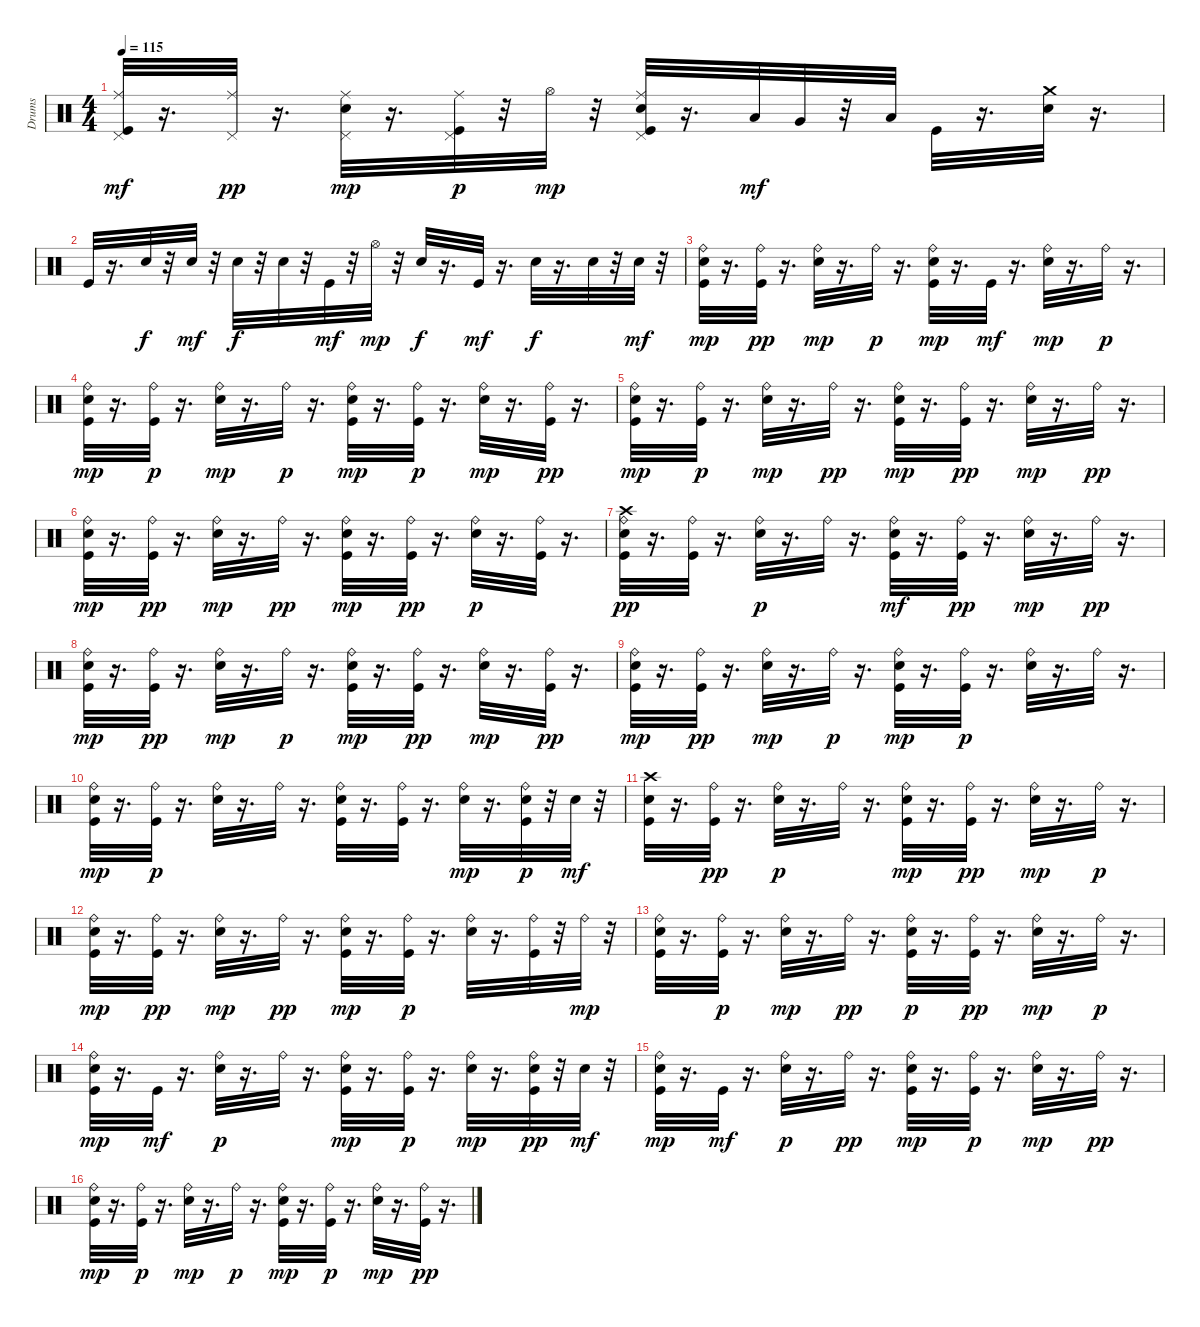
\track ("Drums" "Drums") {instrument percussion}
\staff {score}
\articulation defaults
\ts (4 4)
\tempo 115
\clef neutral
\ks c
("Kick (hit)" "Pedal Hi-Hat (hit)" "Ride (middle)").32{dy mf} r.16{d} ("Pedal Hi-Hat (hit)" "Ride (middle)").32{dy pp} r.16{d} ("Electric Snare (hit)" "Pedal Hi-Hat (hit)" "Ride (middle)").32{dy mp} r.16{d} ("Kick (hit)" "Pedal Hi-Hat (hit)" "Ride (middle)").32{dy p} r.32 "Hi-Hat (open)".32{dy mp} r.32 ("Kick (hit)" "Electric Snare (hit)" "Pedal Hi-Hat (hit)" "Ride (middle)").32 r.16{d} "Low Tom (hit)".32{dy mf} "Very Low Tom (hit)".32 r.32 "Low Floor Tom (hit)".32 "Kick (hit)".32 r.16{d} ("Electric Snare (hit)" "Crash medium (hit)").32 r.16{d} |
"Kick (hit)".32 r.16{d} "Electric Snare (hit)".32{dy f} r.32 "Electric Snare (hit)".32{dy mf} r.32 "Electric Snare (hit)".32{dy f} r.32 "Electric Snare (hit)".32 r.32 "Kick (hit)".32{dy mf} r.32 "Hi-Hat (open)".32{dy mp} r.32 "Electric Snare (hit)".32{dy f} r.16{d} "Kick (hit)".32{dy mf} r.16{d} "Electric Snare (hit)".32{dy f} r.16{d} "Electric Snare (hit)".32 r.32 "Electric Snare (hit)".32{dy mf} r.32 |
("Kick (hit)" "Electric Snare (hit)" "Ride (bell)").32{dy mp} r.16{d} ("Kick (hit)" "Ride (bell)").32{dy pp} r.16{d} ("Electric Snare (hit)" "Ride (bell)").32{dy mp} r.16{d} "Ride (bell)".32{dy p} r.16{d} ("Kick (hit)" "Electric Snare (hit)" "Ride (bell)").32{dy mp} r.16{d} "Kick (hit)".32{dy mf} r.16{d} ("Electric Snare (hit)" "Ride (bell)").32{dy mp} r.16{d} "Ride (bell)".32{dy p} r.16{d} |
("Kick (hit)" "Electric Snare (hit)" "Ride (bell)").32{dy mp} r.16{d} ("Kick (hit)" "Ride (bell)").32{dy p} r.16{d} ("Electric Snare (hit)" "Ride (bell)").32{dy mp} r.16{d} "Ride (bell)".32{dy p} r.16{d} ("Kick (hit)" "Electric Snare (hit)" "Ride (bell)").32{dy mp} r.16{d} ("Kick (hit)" "Ride (bell)").32{dy p} r.16{d} ("Electric Snare (hit)" "Ride (bell)").32{dy mp} r.16{d} ("Kick (hit)" "Ride (bell)").32{dy pp} r.16{d} |
("Kick (hit)" "Electric Snare (hit)" "Ride (bell)").32{dy mp} r.16{d} ("Kick (hit)" "Ride (bell)").32{dy p} r.16{d} ("Electric Snare (hit)" "Ride (bell)").32{dy mp} r.16{d} "Ride (bell)".32{dy pp} r.16{d} ("Kick (hit)" "Electric Snare (hit)" "Ride (bell)").32{dy mp} r.16{d} ("Kick (hit)" "Ride (bell)").32{dy pp} r.16{d} ("Electric Snare (hit)" "Ride (bell)").32{dy mp} r.16{d} "Ride (bell)".32{dy pp} r.16{d} |
("Kick (hit)" "Electric Snare (hit)" "Ride (bell)").32{dy mp} r.16{d} ("Kick (hit)" "Ride (bell)").32{dy pp} r.16{d} ("Electric Snare (hit)" "Ride (bell)").32{dy mp} r.16{d} "Ride (bell)".32{dy pp} r.16{d} ("Kick (hit)" "Electric Snare (hit)" "Ride (bell)").32{dy mp} r.16{d} ("Kick (hit)" "Ride (bell)").32{dy pp} r.16{d} ("Electric Snare (hit)" "Ride (bell)").32{dy p} r.16{d} ("Kick (hit)" "Ride (bell)").32 r.16{d} |
("Kick (hit)" "Electric Snare (hit)" "Crash high (hit)" "Ride (bell)").32{dy pp} r.16{d} ("Kick (hit)" "Ride (bell)").32 r.16{d} ("Electric Snare (hit)" "Ride (bell)").32{dy p} r.16{d} "Ride (bell)".32 r.16{d} ("Kick (hit)" "Electric Snare (hit)" "Ride (bell)").32{dy mf} r.16{d} ("Kick (hit)" "Ride (bell)").32{dy pp} r.16{d} ("Electric Snare (hit)" "Ride (bell)").32{dy mp} r.16{d} "Ride (bell)".32{dy pp} r.16{d} |
("Kick (hit)" "Electric Snare (hit)" "Ride (bell)").32{dy mp} r.16{d} ("Kick (hit)" "Ride (bell)").32{dy pp} r.16{d} ("Electric Snare (hit)" "Ride (bell)").32{dy mp} r.16{d} "Ride (bell)".32{dy p} r.16{d} ("Kick (hit)" "Electric Snare (hit)" "Ride (bell)").32{dy mp} r.16{d} ("Kick (hit)" "Ride (bell)").32{dy pp} r.16{d} ("Electric Snare (hit)" "Ride (bell)").32{dy mp} r.16{d} ("Kick (hit)" "Ride (bell)").32{dy pp} r.16{d} |
("Kick (hit)" "Electric Snare (hit)" "Ride (bell)").32{dy mp} r.16{d} ("Kick (hit)" "Ride (bell)").32{dy pp} r.16{d} ("Electric Snare (hit)" "Ride (bell)").32{dy mp} r.16{d} "Ride (bell)".32{dy p} r.16{d} ("Kick (hit)" "Electric Snare (hit)" "Ride (bell)").32{dy mp} r.16{d} ("Kick (hit)" "Ride (bell)").32{dy p} r.16{d} ("Electric Snare (hit)" "Ride (bell)").32 r.16{d} "Ride (bell)".32 r.16{d} |
("Kick (hit)" "Electric Snare (hit)" "Ride (bell)").32{dy mp} r.16{d} ("Kick (hit)" "Ride (bell)").32{dy p} r.16{d} ("Electric Snare (hit)" "Ride (bell)").32 r.16{d} "Ride (bell)".32 r.16{d} ("Kick (hit)" "Electric Snare (hit)" "Ride (bell)").32 r.16{d} ("Kick (hit)" "Ride (bell)").32 r.16{d} ("Electric Snare (hit)" "Ride (bell)").32{dy mp} r.16{d} ("Kick (hit)" "Electric Snare (hit)" "Ride (bell)").32{dy p} r.32 "Electric Snare (hit)".32{dy mf} r.32 |
("Kick (hit)" "Electric Snare (hit)" "Crash high (hit)").32 r.16{d} ("Kick (hit)" "Ride (bell)").32{dy pp} r.16{d} ("Electric Snare (hit)" "Ride (bell)").32{dy p} r.16{d} "Ride (bell)".32 r.16{d} ("Kick (hit)" "Electric Snare (hit)" "Ride (bell)").32{dy mp} r.16{d} ("Kick (hit)" "Ride (bell)").32{dy pp} r.16{d} ("Electric Snare (hit)" "Ride (bell)").32{dy mp} r.16{d} "Ride (bell)".32{dy p} r.16{d} |
("Kick (hit)" "Electric Snare (hit)" "Ride (bell)").32{dy mp} r.16{d} ("Kick (hit)" "Ride (bell)").32{dy pp} r.16{d} ("Electric Snare (hit)" "Ride (bell)").32{dy mp} r.16{d} "Ride (bell)".32{dy pp} r.16{d} ("Kick (hit)" "Electric Snare (hit)" "Ride (bell)").32{dy mp} r.16{d} ("Kick (hit)" "Ride (bell)").32{dy p} r.16{d} ("Electric Snare (hit)" "Ride (bell)").32 r.16{d} ("Kick (hit)" "Ride (bell)").32 r.32 "Ride (bell)".32{dy mp} r.32 |
("Kick (hit)" "Electric Snare (hit)" "Ride (bell)").32 r.16{d} ("Kick (hit)" "Ride (bell)").32{dy p} r.16{d} ("Electric Snare (hit)" "Ride (bell)").32{dy mp} r.16{d} "Ride (bell)".32{dy pp} r.16{d} ("Kick (hit)" "Electric Snare (hit)" "Ride (bell)").32{dy p} r.16{d} ("Kick (hit)" "Ride (bell)").32{dy pp} r.16{d} ("Electric Snare (hit)" "Ride (bell)").32{dy mp} r.16{d} "Ride (bell)".32{dy p} r.16{d} |
("Kick (hit)" "Electric Snare (hit)" "Ride (bell)").32{dy mp} r.16{d} "Kick (hit)".32{dy mf} r.16{d} ("Electric Snare (hit)" "Ride (bell)").32{dy p} r.16{d} "Ride (bell)".32 r.16{d} ("Kick (hit)" "Electric Snare (hit)" "Ride (bell)").32{dy mp} r.16{d} ("Kick (hit)" "Ride (bell)").32{dy p} r.16{d} ("Electric Snare (hit)" "Ride (bell)").32{dy mp} r.16{d} ("Kick (hit)" "Electric Snare (hit)" "Ride (bell)").32{dy pp} r.32 "Electric Snare (hit)".32{dy mf} r.32 |
("Kick (hit)" "Electric Snare (hit)" "Ride (bell)").32{dy mp} r.16{d} "Kick (hit)".32{dy mf} r.16{d} ("Electric Snare (hit)" "Ride (bell)").32{dy p} r.16{d} "Ride (bell)".32{dy pp} r.16{d} ("Kick (hit)" "Electric Snare (hit)" "Ride (bell)").32{dy mp} r.16{d} ("Kick (hit)" "Ride (bell)").32{dy p} r.16{d} ("Electric Snare (hit)" "Ride (bell)").32{dy mp} r.16{d} "Ride (bell)".32{dy pp} r.16{d} |
("Kick (hit)" "Electric Snare (hit)" "Ride (bell)").32{dy mp} r.16{d} ("Kick (hit)" "Ride (bell)").32{dy p} r.16{d} ("Electric Snare (hit)" "Ride (bell)").32{dy mp} r.16{d} "Ride (bell)".32{dy p} r.16{d} ("Kick (hit)" "Electric Snare (hit)" "Ride (bell)").32{dy mp} r.16{d} ("Kick (hit)" "Ride (bell)").32{dy p} r.16{d} ("Electric Snare (hit)" "Ride (bell)").32{dy mp} r.16{d} ("Kick (hit)" "Ride (bell)").32{dy pp} r.16{d}
